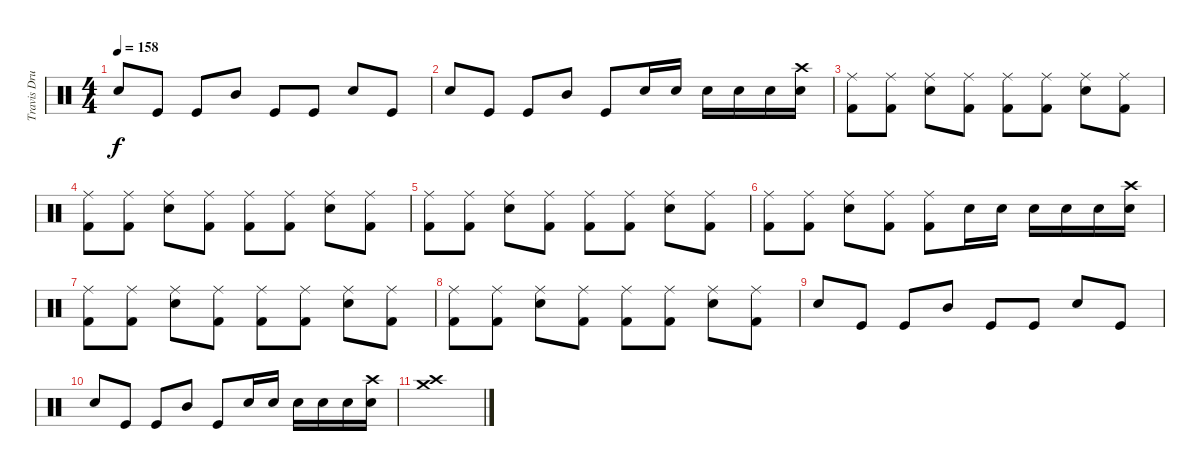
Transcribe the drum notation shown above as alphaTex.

\track ("Travis Drums" "Travis Dru") {instrument percussion}
\staff {score}
\articulation defaults
\ts (4 4)
\tempo 158
\clef neutral
\ks c "Snare (hit) 2".8{dy f} "Kick (hit)".8 "Kick (hit)".8 "Mid Tom (hit)".8 "Kick (hit)".8 "Kick (hit)".8 "Snare (hit) 2".8 "Kick (hit)".8
|
"Snare (hit) 2".8 "Kick (hit)".8 "Kick (hit)".8 "Mid Tom (hit)".8 "Kick (hit)".8 "Snare (hit) 2".16 "Snare (hit) 2".16 "Snare (hit) 2".16 "Snare (hit) 2".16 "Snare (hit) 2".16 ("Snare (hit) 2" "Crash high (hit)").16 |
("Ride (middle)" "Kick (hit) 2").8 ("Ride (middle)" "Kick (hit) 2").8 ("Ride (middle)" "Snare (hit) 2").8 ("Ride (middle)" "Kick (hit) 2").8 ("Ride (middle)" "Kick (hit) 2").8 ("Ride (middle)" "Kick (hit) 2").8 ("Ride (middle)" "Snare (hit) 2").8 ("Ride (middle)" "Kick (hit) 2").8 |
("Ride (middle)" "Kick (hit) 2").8 ("Ride (middle)" "Kick (hit) 2").8 ("Ride (middle)" "Snare (hit) 2").8 ("Ride (middle)" "Kick (hit) 2").8 ("Ride (middle)" "Kick (hit) 2").8 ("Ride (middle)" "Kick (hit) 2").8 ("Ride (middle)" "Snare (hit) 2").8 ("Ride (middle)" "Kick (hit) 2").8 |
("Ride (middle)" "Kick (hit) 2").8 ("Ride (middle)" "Kick (hit) 2").8 ("Ride (middle)" "Snare (hit) 2").8 ("Ride (middle)" "Kick (hit) 2").8 ("Ride (middle)" "Kick (hit) 2").8 ("Ride (middle)" "Kick (hit) 2").8 ("Ride (middle)" "Snare (hit) 2").8 ("Ride (middle)" "Kick (hit) 2").8 |
("Ride (middle)" "Kick (hit) 2").8 ("Ride (middle)" "Kick (hit) 2").8 ("Ride (middle)" "Snare (hit) 2").8 ("Ride (middle)" "Kick (hit) 2").8 ("Ride (middle)" "Kick (hit) 2").8 "Snare (hit) 2".16 "Snare (hit) 2".16 "Snare (hit) 2".16 "Snare (hit) 2".16 "Snare (hit) 2".16 ("Snare (hit) 2" "Crash high (hit)").16 |
("Ride (middle)" "Kick (hit) 2").8 ("Ride (middle)" "Kick (hit) 2").8 ("Ride (middle)" "Snare (hit) 2").8 ("Ride (middle)" "Kick (hit) 2").8 ("Ride (middle)" "Kick (hit) 2").8 ("Ride (middle)" "Kick (hit) 2").8 ("Ride (middle)" "Snare (hit) 2").8 ("Ride (middle)" "Kick (hit) 2").8 |
("Ride (middle)" "Kick (hit) 2").8 ("Ride (middle)" "Kick (hit) 2").8 ("Ride (middle)" "Snare (hit) 2").8 ("Ride (middle)" "Kick (hit) 2").8 ("Ride (middle)" "Kick (hit) 2").8 ("Ride (middle)" "Kick (hit) 2").8 ("Ride (middle)" "Snare (hit) 2").8 ("Ride (middle)" "Kick (hit) 2").8 |
"Snare (hit) 2".8 "Kick (hit)".8 "Kick (hit)".8 "Mid Tom (hit)".8 "Kick (hit)".8 "Kick (hit)".8 "Snare (hit) 2".8 "Kick (hit)".8 |
"Snare (hit) 2".8 "Kick (hit)".8 "Kick (hit)".8 "Mid Tom (hit)".8 "Kick (hit)".8 "Snare (hit) 2".16 "Snare (hit) 2".16 "Snare (hit) 2".16 "Snare (hit) 2".16 "Snare (hit) 2".16 ("Snare (hit) 2" "Crash high (hit)").16 |
("Crash medium (hit)" "Crash high (hit)").1
